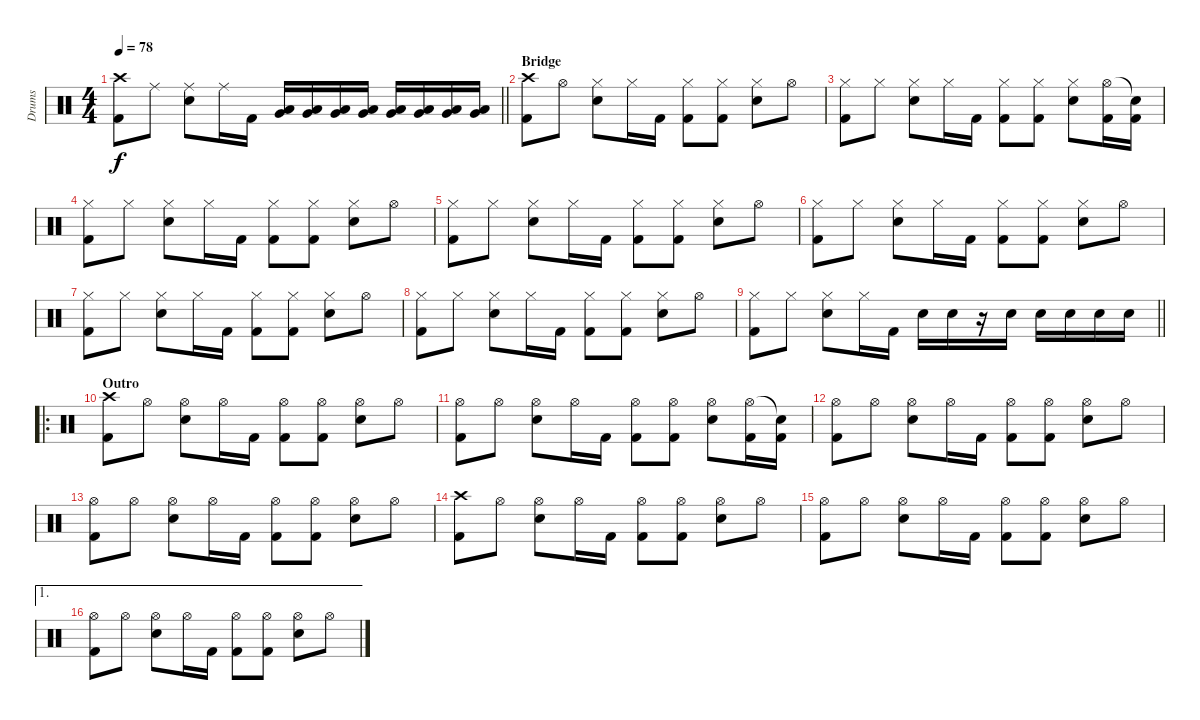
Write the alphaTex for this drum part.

\track ("Drums" "Drums") {instrument percussion}
\staff {score}
\articulation defaults
\ts (4 4)
\tempo 78
\clef neutral
\barLineRight lightlight
\ks c
("Crash high (hit)" "Kick (hit) 2").8{dy f} "Ride (middle)".8 ("Ride (middle)" "Electric Snare (hit)").8 "Ride (middle)".16 "Kick (hit) 2".16 ("Low Tom (hit)" "Very Low Tom (hit)").16 ("Low Tom (hit)" "Very Low Tom (hit)").16 ("Low Tom (hit)" "Very Low Tom (hit)").16 ("Low Tom (hit)" "Very Low Tom (hit)").16 ("Low Tom (hit)" "Very Low Tom (hit)").16 ("Low Tom (hit)" "Very Low Tom (hit)").16 ("Low Tom (hit)" "Very Low Tom (hit)").16 ("Low Tom (hit)" "Very Low Tom (hit)").16 |
\section ("" "Bridge")
("Crash high (hit)" "Kick (hit) 2").8 "Hi-Hat (open)".8 ("Hi-Hat (closed)" "Electric Snare (hit)").8 "Hi-Hat (closed)".16 "Kick (hit) 2".16 ("Hi-Hat (closed)" "Kick (hit) 2").8 ("Hi-Hat (closed)" "Kick (hit) 2").8 ("Hi-Hat (closed)" "Electric Snare (hit)").8 "Hi-Hat (open)".8 |
("Hi-Hat (closed)" "Kick (hit) 2").8 "Hi-Hat (closed)".8 ("Hi-Hat (closed)" "Electric Snare (hit)").8 "Hi-Hat (closed)".16 "Kick (hit) 2".16 ("Hi-Hat (closed)" "Kick (hit) 2").8 ("Hi-Hat (closed)" "Kick (hit) 2").8 ("Hi-Hat (closed)" "Electric Snare (hit)").8 ("Hi-Hat (open)" "Kick (hit) 2").16 ("Snare (hit)"{t} "Kick (hit) 2").16 |
("Hi-Hat (closed)" "Kick (hit) 2").8 "Hi-Hat (closed)".8 ("Hi-Hat (closed)" "Electric Snare (hit)").8 "Hi-Hat (closed)".16 "Kick (hit) 2".16 ("Hi-Hat (closed)" "Kick (hit) 2").8 ("Hi-Hat (closed)" "Kick (hit) 2").8 ("Hi-Hat (closed)" "Electric Snare (hit)").8 "Hi-Hat (open)".8 |
("Hi-Hat (closed)" "Kick (hit) 2").8 "Hi-Hat (closed)".8 ("Hi-Hat (closed)" "Electric Snare (hit)").8 "Hi-Hat (closed)".16 "Kick (hit) 2".16 ("Hi-Hat (closed)" "Kick (hit) 2").8 ("Hi-Hat (closed)" "Kick (hit) 2").8 ("Hi-Hat (closed)" "Electric Snare (hit)").8 "Hi-Hat (open)".8 |
("Hi-Hat (closed)" "Kick (hit) 2").8 "Hi-Hat (closed)".8 ("Hi-Hat (closed)" "Electric Snare (hit)").8 "Hi-Hat (closed)".16 "Kick (hit) 2".16 ("Hi-Hat (closed)" "Kick (hit) 2").8 ("Hi-Hat (closed)" "Kick (hit) 2").8 ("Hi-Hat (closed)" "Electric Snare (hit)").8 "Hi-Hat (open)".8 |
("Hi-Hat (closed)" "Kick (hit) 2").8 "Hi-Hat (closed)".8 ("Hi-Hat (closed)" "Electric Snare (hit)").8 "Hi-Hat (closed)".16 "Kick (hit) 2".16 ("Hi-Hat (closed)" "Kick (hit) 2").8 ("Hi-Hat (closed)" "Kick (hit) 2").8 ("Hi-Hat (closed)" "Electric Snare (hit)").8 "Hi-Hat (open)".8 |
("Hi-Hat (closed)" "Kick (hit) 2").8 "Hi-Hat (closed)".8 ("Hi-Hat (closed)" "Electric Snare (hit)").8 "Hi-Hat (closed)".16 "Kick (hit) 2".16 ("Hi-Hat (closed)" "Kick (hit) 2").8 ("Hi-Hat (closed)" "Kick (hit) 2").8 ("Hi-Hat (closed)" "Electric Snare (hit)").8 "Hi-Hat (open)".8 |
\barLineRight lightlight
("Hi-Hat (closed)" "Kick (hit) 2").8 "Hi-Hat (closed)".8 ("Hi-Hat (closed)" "Electric Snare (hit)").8 "Hi-Hat (closed)".16 "Kick (hit) 2".16 "Electric Snare (hit)".16 "Electric Snare (hit)".16 r.16 "Electric Snare (hit)".16 "Electric Snare (hit)".16 "Electric Snare (hit)".16 "Electric Snare (hit)".16 "Electric Snare (hit)".16 |
\ro
\section ("" "Outro")
("Crash high (hit)" "Kick (hit) 2").8 "Hi-Hat (open)".8 ("Hi-Hat (open)" "Electric Snare (hit)").8 "Hi-Hat (open)".16 "Kick (hit) 2".16 ("Hi-Hat (open)" "Kick (hit) 2").8 ("Hi-Hat (open)" "Kick (hit) 2").8 ("Hi-Hat (open)" "Electric Snare (hit)").8 "Hi-Hat (open)".8 |
("Hi-Hat (open)" "Kick (hit) 2").8 "Hi-Hat (open)".8 ("Hi-Hat (open)" "Electric Snare (hit)").8 "Hi-Hat (open)".16 "Kick (hit) 2".16 ("Hi-Hat (open)" "Kick (hit) 2").8 ("Hi-Hat (open)" "Kick (hit) 2").8 ("Hi-Hat (open)" "Electric Snare (hit)").8 ("Hi-Hat (open)" "Kick (hit) 2").16 ("Snare (hit)"{t} "Kick (hit) 2").16 |
("Hi-Hat (open)" "Kick (hit) 2").8 "Hi-Hat (open)".8 ("Hi-Hat (open)" "Electric Snare (hit)").8 "Hi-Hat (open)".16 "Kick (hit) 2".16 ("Hi-Hat (open)" "Kick (hit) 2").8 ("Hi-Hat (open)" "Kick (hit) 2").8 ("Hi-Hat (open)" "Electric Snare (hit)").8 "Hi-Hat (open)".8 |
("Hi-Hat (open)" "Kick (hit) 2").8 "Hi-Hat (open)".8 ("Hi-Hat (open)" "Electric Snare (hit)").8 "Hi-Hat (open)".16 "Kick (hit) 2".16 ("Hi-Hat (open)" "Kick (hit) 2").8 ("Hi-Hat (open)" "Kick (hit) 2").8 ("Hi-Hat (open)" "Electric Snare (hit)").8 "Hi-Hat (open)".8 |
("Crash high (hit)" "Kick (hit) 2").8 "Hi-Hat (open)".8 ("Hi-Hat (open)" "Electric Snare (hit)").8 "Hi-Hat (open)".16 "Kick (hit) 2".16 ("Hi-Hat (open)" "Kick (hit) 2").8 ("Hi-Hat (open)" "Kick (hit) 2").8 ("Hi-Hat (open)" "Electric Snare (hit)").8 "Hi-Hat (open)".8 |
("Hi-Hat (open)" "Kick (hit) 2").8 "Hi-Hat (open)".8 ("Hi-Hat (open)" "Electric Snare (hit)").8 "Hi-Hat (open)".16 "Kick (hit) 2".16 ("Hi-Hat (open)" "Kick (hit) 2").8 ("Hi-Hat (open)" "Kick (hit) 2").8 ("Hi-Hat (open)" "Electric Snare (hit)").8 "Hi-Hat (open)".8 |
\ae 1
("Hi-Hat (open)" "Kick (hit) 2").8 "Hi-Hat (open)".8 ("Hi-Hat (open)" "Electric Snare (hit)").8 "Hi-Hat (open)".16 "Kick (hit) 2".16 ("Hi-Hat (open)" "Kick (hit) 2").8 ("Hi-Hat (open)" "Kick (hit) 2").8 ("Hi-Hat (open)" "Electric Snare (hit)").8 "Hi-Hat (open)".8
